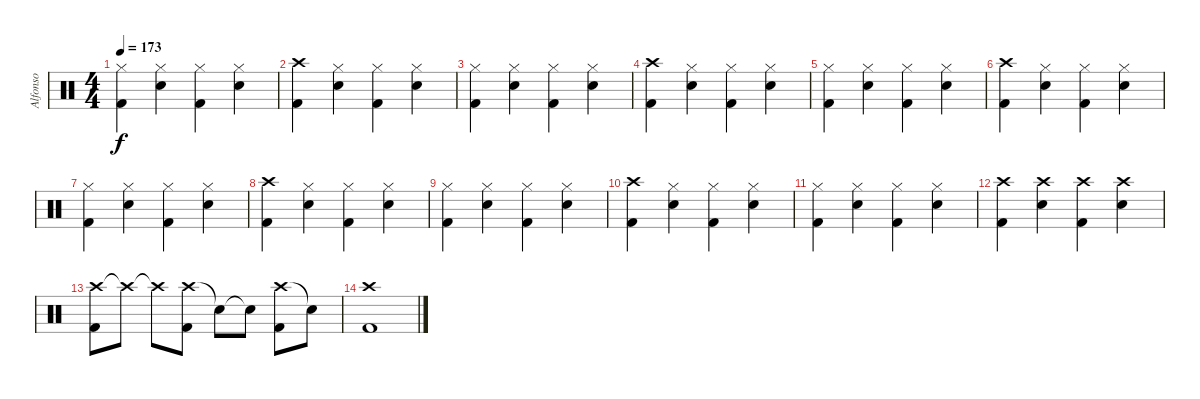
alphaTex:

\track ("Alfonso" "Alfonso") {instrument percussion}
\staff {score}
\articulation defaults
\ts (4 4)
\tempo 173
\clef neutral
\ks c
("Kick (hit) 2" "Hi-Hat (closed)").4{dy f} ("Electric Snare (hit)" "Hi-Hat (closed)").4 ("Kick (hit) 2" "Hi-Hat (closed)").4 ("Electric Snare (hit)" "Hi-Hat (closed)").4 |
("Kick (hit) 2" "Crash high (hit)").4 ("Electric Snare (hit)" "Hi-Hat (closed)").4 ("Kick (hit) 2" "Hi-Hat (closed)").4 ("Electric Snare (hit)" "Hi-Hat (closed)").4 |
("Kick (hit) 2" "Hi-Hat (closed)").4 ("Electric Snare (hit)" "Hi-Hat (closed)").4 ("Kick (hit) 2" "Hi-Hat (closed)").4 ("Electric Snare (hit)" "Hi-Hat (closed)").4 |
("Kick (hit) 2" "Crash high (hit)").4 ("Electric Snare (hit)" "Hi-Hat (closed)").4 ("Kick (hit) 2" "Hi-Hat (closed)").4 ("Electric Snare (hit)" "Hi-Hat (closed)").4 |
("Kick (hit) 2" "Hi-Hat (closed)").4 ("Electric Snare (hit)" "Hi-Hat (closed)").4 ("Kick (hit) 2" "Hi-Hat (closed)").4 ("Electric Snare (hit)" "Hi-Hat (closed)").4 |
("Kick (hit) 2" "Crash high (hit)").4 ("Electric Snare (hit)" "Hi-Hat (closed)").4 ("Kick (hit) 2" "Hi-Hat (closed)").4 ("Electric Snare (hit)" "Hi-Hat (closed)").4 |
("Kick (hit) 2" "Hi-Hat (closed)").4 ("Electric Snare (hit)" "Hi-Hat (closed)").4 ("Kick (hit) 2" "Hi-Hat (closed)").4 ("Electric Snare (hit)" "Hi-Hat (closed)").4 |
("Kick (hit) 2" "Crash high (hit)").4 ("Electric Snare (hit)" "Hi-Hat (closed)").4 ("Kick (hit) 2" "Hi-Hat (closed)").4 ("Electric Snare (hit)" "Hi-Hat (closed)").4 |
("Kick (hit) 2" "Hi-Hat (closed)").4 ("Electric Snare (hit)" "Hi-Hat (closed)").4 ("Kick (hit) 2" "Hi-Hat (closed)").4 ("Electric Snare (hit)" "Hi-Hat (closed)").4 |
("Kick (hit) 2" "Crash high (hit)").4 ("Electric Snare (hit)" "Hi-Hat (closed)").4 ("Kick (hit) 2" "Hi-Hat (closed)").4 ("Electric Snare (hit)" "Hi-Hat (closed)").4 |
("Kick (hit) 2" "Hi-Hat (closed)").4 ("Electric Snare (hit)" "Hi-Hat (closed)").4 ("Kick (hit) 2" "Hi-Hat (closed)").4 ("Electric Snare (hit)" "Hi-Hat (closed)").4 |
("Kick (hit) 2" "Crash high (hit)").4 ("Electric Snare (hit)" "Crash high (hit)").4 ("Kick (hit) 2" "Crash high (hit)").4 ("Electric Snare (hit)" "Crash high (hit)").4 |
("Crash high (hit)" "Kick (hit) 2").8 "Crash high (hit)"{t}.8 "Crash high (hit)"{t}.8 ("Crash high (hit)" "Kick (hit) 2").8 "Snare (hit)"{t}.8 "Snare (hit)"{t}.8 ("Crash high (hit)" "Kick (hit) 2").8 "Snare (hit)"{t}.8 |
("Crash high (hit)" "Kick (hit) 2").1
